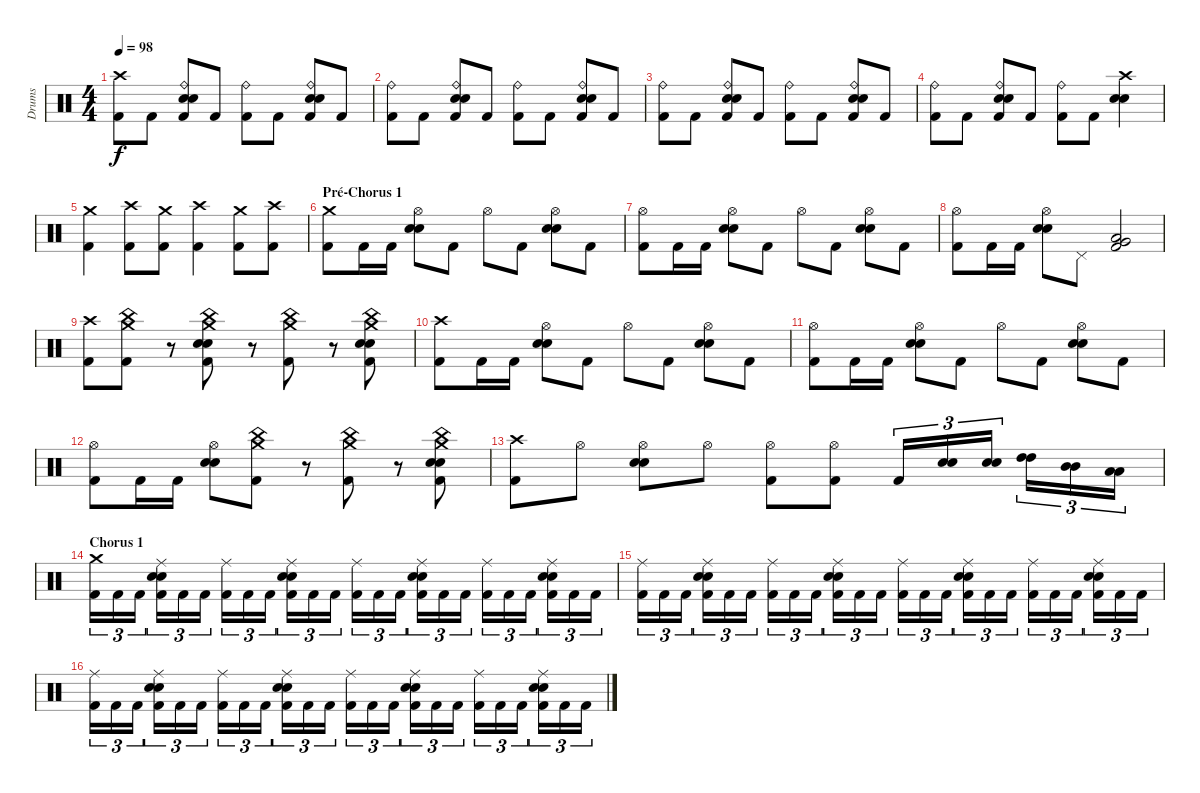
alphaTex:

\track ("Drums" "Drums") {instrument percussion}
\staff {score}
\articulation defaults
\ts (4 4)
\tempo 98
\clef neutral
\ks c
("Crash high (hit)" "Kick (hit) 2").8{dy f} "Kick (hit) 2".8 ("Ride (bell)" "Snare (hit) 2" "Electric Snare (hit)" "Kick (hit) 2").8 "Kick (hit) 2".8 ("Ride (bell)" "Kick (hit) 2").8 "Kick (hit) 2".8 ("Ride (bell)" "Snare (hit) 2" "Electric Snare (hit)" "Kick (hit) 2").8 "Kick (hit) 2".8 |
("Ride (bell)" "Kick (hit) 2").8 "Kick (hit) 2".8 ("Ride (bell)" "Snare (hit) 2" "Electric Snare (hit)" "Kick (hit) 2").8 "Kick (hit) 2".8 ("Ride (bell)" "Kick (hit) 2").8 "Kick (hit) 2".8 ("Ride (bell)" "Snare (hit) 2" "Electric Snare (hit)" "Kick (hit) 2").8 "Kick (hit) 2".8 |
("Ride (bell)" "Kick (hit) 2").8 "Kick (hit) 2".8 ("Ride (bell)" "Snare (hit) 2" "Electric Snare (hit)" "Kick (hit) 2").8 "Kick (hit) 2".8 ("Ride (bell)" "Kick (hit) 2").8 "Kick (hit) 2".8 ("Ride (bell)" "Snare (hit) 2" "Electric Snare (hit)" "Kick (hit) 2").8 "Kick (hit) 2".8 |
("Ride (bell)" "Kick (hit) 2").8 "Kick (hit) 2".8 ("Ride (bell)" "Snare (hit) 2" "Electric Snare (hit)" "Kick (hit) 2").8 "Kick (hit) 2".8 ("Ride (bell)" "Kick (hit) 2").8 "Kick (hit) 2".8 ("Crash high (hit)" "Electric Snare (hit)" "Snare (hit) 2").4 |
("Crash medium (hit)" "Kick (hit) 2").4 ("Crash high (hit)" "Kick (hit) 2").8 ("Crash medium (hit)" "Kick (hit) 2").8 ("Crash high (hit)" "Kick (hit) 2").4 ("Crash medium (hit)" "Kick (hit) 2").8 ("Crash high (hit)" "Kick (hit) 2").8 |
\section ("" "Pré-Chorus 1 ")
("Crash medium (hit)" "Kick (hit) 2").8 "Kick (hit) 2".16 "Kick (hit) 2".16 ("Hi-Hat (open)" "Snare (hit) 2" "Electric Snare (hit)").8 "Kick (hit) 2".8 "Hi-Hat (open)".8 "Kick (hit) 2".8 ("Hi-Hat (open)" "Snare (hit) 2" "Electric Snare (hit)").8 "Kick (hit) 2".8 |
("Hi-Hat (open)" "Kick (hit) 2").8 "Kick (hit) 2".16 "Kick (hit) 2".16 ("Hi-Hat (open)" "Snare (hit) 2" "Electric Snare (hit)").8 "Kick (hit) 2".8 "Hi-Hat (open)".8 "Kick (hit) 2".8 ("Hi-Hat (open)" "Snare (hit) 2" "Electric Snare (hit)").8 "Kick (hit) 2".8 |
("Hi-Hat (open)" "Kick (hit) 2").8 "Kick (hit) 2".16 "Kick (hit) 2".16 ("Hi-Hat (open)" "Snare (hit) 2" "Electric Snare (hit)").8 "Pedal Hi-Hat (hit)".8 ("Very Low Tom (hit)" "Low Floor Tom (hit)" "Kick (hit) 2").2 |
("Crash high (hit)" "Kick (hit) 2").8 ("China (hit)" "Crash medium (hit)" "Kick (hit) 2").8 r.8 ("China (hit)" "Snare (hit) 2" "Electric Snare (hit)" "Crash medium (hit)" "Kick (hit) 2").8 r.8 ("China (hit)" "Crash medium (hit)" "Kick (hit) 2").8 r.8 ("China (hit)" "Snare (hit) 2" "Electric Snare (hit)" "Crash medium (hit)" "Kick (hit) 2").8 |
("Crash high (hit)" "Kick (hit) 2").8 "Kick (hit) 2".16 "Kick (hit) 2".16 ("Hi-Hat (open)" "Snare (hit) 2" "Electric Snare (hit)").8 "Kick (hit) 2".8 "Hi-Hat (open)".8 "Kick (hit) 2".8 ("Hi-Hat (open)" "Snare (hit) 2" "Electric Snare (hit)").8 "Kick (hit) 2".8 |
("Hi-Hat (open)" "Kick (hit) 2").8 "Kick (hit) 2".16 "Kick (hit) 2".16 ("Hi-Hat (open)" "Snare (hit) 2" "Electric Snare (hit)").8 "Kick (hit) 2".8 "Hi-Hat (open)".8 "Kick (hit) 2".8 ("Hi-Hat (open)" "Snare (hit) 2" "Electric Snare (hit)").8 "Kick (hit) 2".8 |
("Hi-Hat (open)" "Kick (hit) 2").8 "Kick (hit) 2".16 "Kick (hit) 2".16 ("Hi-Hat (open)" "Snare (hit) 2" "Electric Snare (hit)").8 ("China (hit)" "Crash medium (hit)" "Kick (hit) 2").8 r.8 ("China (hit)" "Crash medium (hit)" "Kick (hit) 2").8 r.8 ("China (hit)" "Snare (hit) 2" "Electric Snare (hit)" "Crash medium (hit)" "Kick (hit) 2").8 |
("Crash high (hit)" "Kick (hit) 2").8 "Hi-Hat (open)".8 ("Hi-Hat (open)" "Snare (hit) 2" "Electric Snare (hit)").8 "Hi-Hat (open)".8 ("Hi-Hat (open)" "Kick (hit) 2").8 ("Hi-Hat (open)" "Kick (hit) 2").8 "Kick (hit) 2".16{tu (3 2)} ("Snare (hit) 2" "Electric Snare (hit)").16{tu (3 2)} ("Snare (hit) 2" "Electric Snare (hit)").16{tu (3 2)} ("High Tom (hit)" "High Tom (hit)").16{tu (3 2)} ("Mid Tom (hit)" "Mid Tom (hit)").16{tu (3 2)} ("Low Tom (hit)" "Low Tom (hit)").16{tu (3 2)} |
\section ("" "Chorus 1")
("Crash medium (hit)" "Kick (hit) 2").16{tu (3 2)} "Kick (hit) 2".16{tu (3 2)} "Kick (hit) 2".16{tu (3 2)} ("Ride (middle)" "Snare (hit) 2" "Electric Snare (hit)" "Kick (hit) 2").16{tu (3 2)} "Kick (hit) 2".16{tu (3 2)} "Kick (hit) 2".16{tu (3 2)} ("Ride (middle)" "Kick (hit) 2").16{tu (3 2)} "Kick (hit) 2".16{tu (3 2)} "Kick (hit) 2".16{tu (3 2)} ("Ride (middle)" "Snare (hit) 2" "Electric Snare (hit)" "Kick (hit) 2").16{tu (3 2)} "Kick (hit) 2".16{tu (3 2)} "Kick (hit) 2".16{tu (3 2)} ("Ride (middle)" "Kick (hit) 2").16{tu (3 2)} "Kick (hit) 2".16{tu (3 2)} "Kick (hit) 2".16{tu (3 2)} ("Ride (middle)" "Snare (hit) 2" "Electric Snare (hit)" "Kick (hit) 2").16{tu (3 2)} "Kick (hit) 2".16{tu (3 2)} "Kick (hit) 2".16{tu (3 2)} ("Ride (middle)" "Kick (hit) 2").16{tu (3 2)} "Kick (hit) 2".16{tu (3 2)} "Kick (hit) 2".16{tu (3 2)} ("Ride (middle)" "Snare (hit) 2" "Electric Snare (hit)" "Kick (hit) 2").16{tu (3 2)} "Kick (hit) 2".16{tu (3 2)} "Kick (hit) 2".16{tu (3 2)} |
("Ride (middle)" "Kick (hit) 2").16{tu (3 2)} "Kick (hit) 2".16{tu (3 2)} "Kick (hit) 2".16{tu (3 2)} ("Ride (middle)" "Snare (hit) 2" "Electric Snare (hit)" "Kick (hit) 2").16{tu (3 2)} "Kick (hit) 2".16{tu (3 2)} "Kick (hit) 2".16{tu (3 2)} ("Ride (middle)" "Kick (hit) 2").16{tu (3 2)} "Kick (hit) 2".16{tu (3 2)} "Kick (hit) 2".16{tu (3 2)} ("Ride (middle)" "Snare (hit) 2" "Electric Snare (hit)" "Kick (hit) 2").16{tu (3 2)} "Kick (hit) 2".16{tu (3 2)} "Kick (hit) 2".16{tu (3 2)} ("Ride (middle)" "Kick (hit) 2").16{tu (3 2)} "Kick (hit) 2".16{tu (3 2)} "Kick (hit) 2".16{tu (3 2)} ("Ride (middle)" "Snare (hit) 2" "Electric Snare (hit)" "Kick (hit) 2").16{tu (3 2)} "Kick (hit) 2".16{tu (3 2)} "Kick (hit) 2".16{tu (3 2)} ("Ride (middle)" "Kick (hit) 2").16{tu (3 2)} "Kick (hit) 2".16{tu (3 2)} "Kick (hit) 2".16{tu (3 2)} ("Ride (middle)" "Snare (hit) 2" "Electric Snare (hit)" "Kick (hit) 2").16{tu (3 2)} "Kick (hit) 2".16{tu (3 2)} "Kick (hit) 2".16{tu (3 2)} |
("Ride (middle)" "Kick (hit) 2").16{tu (3 2)} "Kick (hit) 2".16{tu (3 2)} "Kick (hit) 2".16{tu (3 2)} ("Ride (middle)" "Snare (hit) 2" "Electric Snare (hit)" "Kick (hit) 2").16{tu (3 2)} "Kick (hit) 2".16{tu (3 2)} "Kick (hit) 2".16{tu (3 2)} ("Ride (middle)" "Kick (hit) 2").16{tu (3 2)} "Kick (hit) 2".16{tu (3 2)} "Kick (hit) 2".16{tu (3 2)} ("Ride (middle)" "Snare (hit) 2" "Electric Snare (hit)" "Kick (hit) 2").16{tu (3 2)} "Kick (hit) 2".16{tu (3 2)} "Kick (hit) 2".16{tu (3 2)} ("Ride (middle)" "Kick (hit) 2").16{tu (3 2)} "Kick (hit) 2".16{tu (3 2)} "Kick (hit) 2".16{tu (3 2)} ("Ride (middle)" "Snare (hit) 2" "Electric Snare (hit)" "Kick (hit) 2").16{tu (3 2)} "Kick (hit) 2".16{tu (3 2)} "Kick (hit) 2".16{tu (3 2)} ("Ride (middle)" "Kick (hit) 2").16{tu (3 2)} "Kick (hit) 2".16{tu (3 2)} "Kick (hit) 2".16{tu (3 2)} ("Ride (middle)" "Snare (hit) 2" "Electric Snare (hit)" "Kick (hit) 2").16{tu (3 2)} "Kick (hit) 2".16{tu (3 2)} "Kick (hit) 2".16{tu (3 2)}
